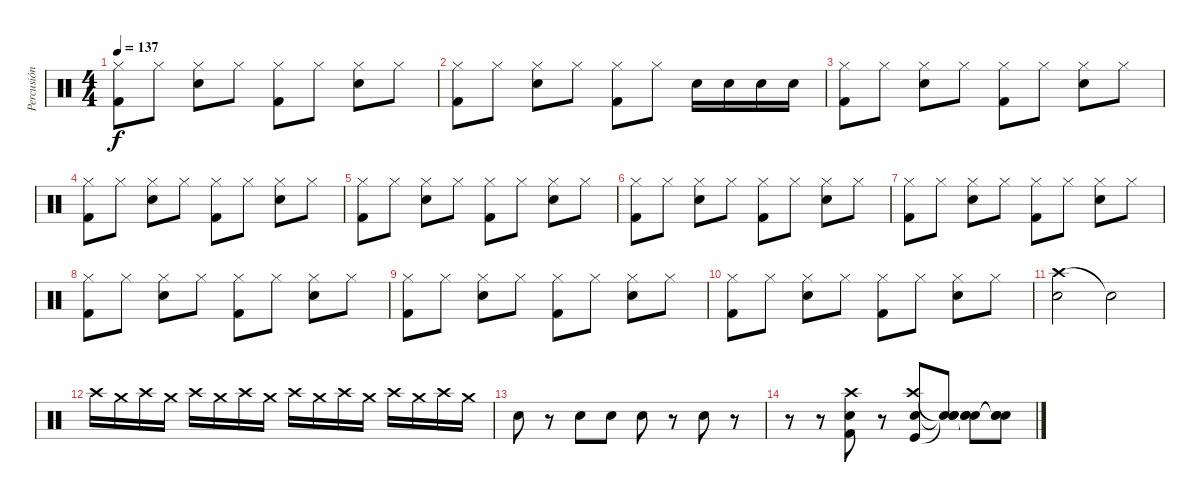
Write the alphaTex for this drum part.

\track ("Percusión" "Percusión") {instrument percussion}
\staff {score}
\articulation defaults
\ts (4 4)
\tempo 137
\clef neutral
\ks c
("Hi-Hat (closed)" "Kick (hit) 2").8{dy f} "Hi-Hat (closed)".8 ("Hi-Hat (closed)" "Electric Snare (hit)").8 "Hi-Hat (closed)".8 ("Hi-Hat (closed)" "Kick (hit) 2").8 "Hi-Hat (closed)".8 ("Hi-Hat (closed)" "Electric Snare (hit)").8 "Hi-Hat (closed)".8 |
("Hi-Hat (closed)" "Kick (hit) 2").8 "Hi-Hat (closed)".8 ("Hi-Hat (closed)" "Electric Snare (hit)").8 "Hi-Hat (closed)".8 ("Hi-Hat (closed)" "Kick (hit) 2").8 "Hi-Hat (closed)".8 "Electric Snare (hit)".16 "Electric Snare (hit)".16 "Electric Snare (hit)".16 "Electric Snare (hit)".16 |
("Hi-Hat (closed)" "Kick (hit) 2").8 "Hi-Hat (closed)".8 ("Hi-Hat (closed)" "Electric Snare (hit)").8 "Hi-Hat (closed)".8 ("Hi-Hat (closed)" "Kick (hit) 2").8 "Hi-Hat (closed)".8 ("Hi-Hat (closed)" "Electric Snare (hit)").8 "Hi-Hat (closed)".8 |
("Hi-Hat (closed)" "Kick (hit) 2").8 "Hi-Hat (closed)".8 ("Hi-Hat (closed)" "Electric Snare (hit)").8 "Hi-Hat (closed)".8 ("Hi-Hat (closed)" "Kick (hit) 2").8 "Hi-Hat (closed)".8 ("Hi-Hat (closed)" "Electric Snare (hit)").8 "Hi-Hat (closed)".8 |
("Hi-Hat (closed)" "Kick (hit) 2").8 "Hi-Hat (closed)".8 ("Hi-Hat (closed)" "Electric Snare (hit)").8 "Hi-Hat (closed)".8 ("Hi-Hat (closed)" "Kick (hit) 2").8 "Hi-Hat (closed)".8 ("Hi-Hat (closed)" "Electric Snare (hit)").8 "Hi-Hat (closed)".8 |
("Hi-Hat (closed)" "Kick (hit) 2").8 "Hi-Hat (closed)".8 ("Hi-Hat (closed)" "Electric Snare (hit)").8 "Hi-Hat (closed)".8 ("Hi-Hat (closed)" "Kick (hit) 2").8 "Hi-Hat (closed)".8 ("Hi-Hat (closed)" "Electric Snare (hit)").8 "Hi-Hat (closed)".8 |
("Hi-Hat (closed)" "Kick (hit) 2").8 "Hi-Hat (closed)".8 ("Hi-Hat (closed)" "Electric Snare (hit)").8 "Hi-Hat (closed)".8 ("Hi-Hat (closed)" "Kick (hit) 2").8 "Hi-Hat (closed)".8 ("Hi-Hat (closed)" "Electric Snare (hit)").8 "Hi-Hat (closed)".8 |
("Hi-Hat (closed)" "Kick (hit) 2").8 "Hi-Hat (closed)".8 ("Hi-Hat (closed)" "Electric Snare (hit)").8 "Hi-Hat (closed)".8 ("Hi-Hat (closed)" "Kick (hit) 2").8 "Hi-Hat (closed)".8 ("Hi-Hat (closed)" "Electric Snare (hit)").8 "Hi-Hat (closed)".8 |
("Hi-Hat (closed)" "Kick (hit) 2").8 "Hi-Hat (closed)".8 ("Hi-Hat (closed)" "Electric Snare (hit)").8 "Hi-Hat (closed)".8 ("Hi-Hat (closed)" "Kick (hit) 2").8 "Hi-Hat (closed)".8 ("Hi-Hat (closed)" "Electric Snare (hit)").8 "Hi-Hat (closed)".8 |
("Hi-Hat (closed)" "Kick (hit) 2").8 "Hi-Hat (closed)".8 ("Hi-Hat (closed)" "Electric Snare (hit)").8 "Hi-Hat (closed)".8 ("Hi-Hat (closed)" "Kick (hit) 2").8 "Hi-Hat (closed)".8 ("Hi-Hat (closed)" "Electric Snare (hit)").8 "Hi-Hat (closed)".8 |
("Crash high (hit)" "Electric Snare (hit)").2 "Snare (hit)"{t}.2 |
"Crash high (hit)".16 "Crash medium (hit)".16 "Crash high (hit)".16 "Crash medium (hit)".16 "Crash high (hit)".16 "Crash medium (hit)".16 "Crash high (hit)".16 "Crash medium (hit)".16 "Crash high (hit)".16 "Crash medium (hit)".16 "Crash high (hit)".16 "Crash medium (hit)".16 "Crash high (hit)".16 "Crash medium (hit)".16 "Crash high (hit)".16 "Crash medium (hit)".16 |
"Electric Snare (hit)".8 r.8 "Electric Snare (hit)".8 "Electric Snare (hit)".8 "Electric Snare (hit)".8 r.8 "Electric Snare (hit)".8 r.8 |
r.8 r.8 ("Crash high (hit)" "Electric Snare (hit)" "Kick (hit) 2").8 r.8 ("Crash high (hit)" "Electric Snare (hit)" "Kick (hit)").8 ("Snare (hit)"{t} "Snare (hit)"{t} "Snare (hit)"{t}).8 ("Snare (hit)"{t} "Snare (hit)"{t} "Snare (hit)"{t}).8 ("Snare (hit)"{t} "Snare (hit)"{t} "Snare (hit)"{t}).8
